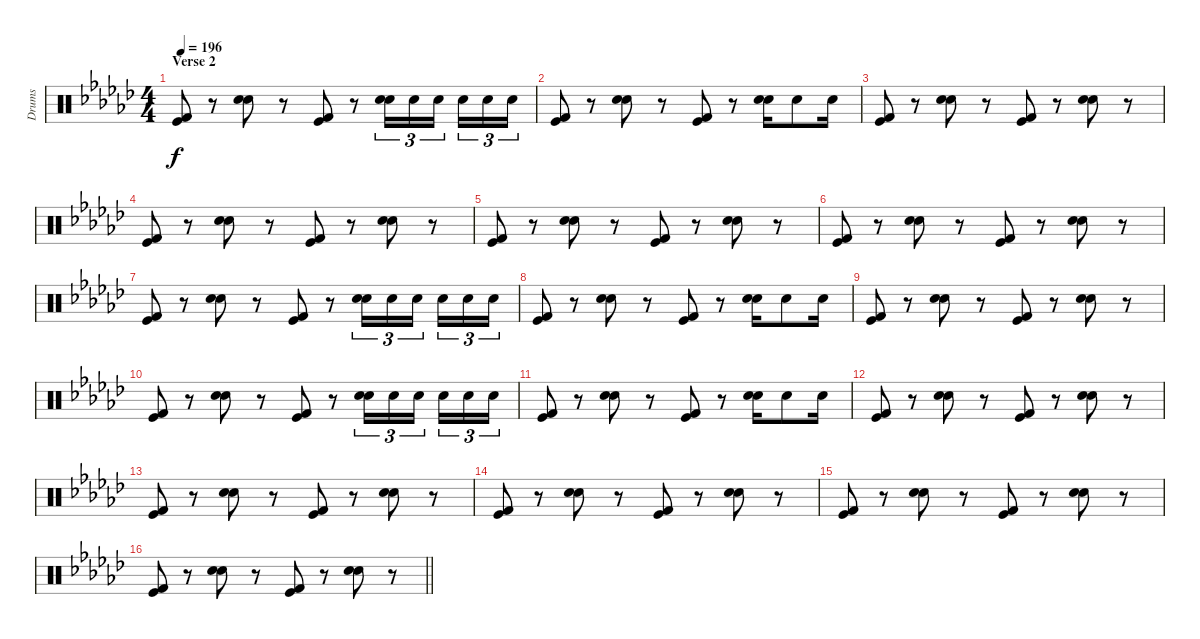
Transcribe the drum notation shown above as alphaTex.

\track ("Drums" "Drums") {instrument percussion}
\staff {score}
\articulation defaults
\ts (4 4)
\section ("" "Verse 2")
\tempo 196
\clef neutral
\ks gb
("Kick (hit) 2" "Kick (hit)").8{dy f} r.8 ("Snare (hit) 2" "Electric Snare (hit)").8 r.8 ("Kick (hit) 2" "Kick (hit)").8 r.8 ("Hand Clap (hit)" "Electric Snare (hit)").16{tu (3 2)} "Hand Clap (hit)".16{tu (3 2)} "Hand Clap (hit)".16{tu (3 2) beam splitsecondary} "Hand Clap (hit)".16{tu (3 2)} "Hand Clap (hit)".16{tu (3 2)} "Hand Clap (hit)".16{tu (3 2)} |
("Kick (hit) 2" "Kick (hit)").8 r.8 ("Snare (hit) 2" "Electric Snare (hit)").8 r.8 ("Kick (hit) 2" "Kick (hit)").8 r.8 ("Snare (hit) 2" "Electric Snare (hit)").16 "Hand Clap (hit)".8 "Hand Clap (hit)".16 |
("Kick (hit) 2" "Kick (hit)").8 r.8 ("Snare (hit) 2" "Electric Snare (hit)").8 r.8 ("Kick (hit) 2" "Kick (hit)").8 r.8 ("Snare (hit) 2" "Electric Snare (hit)").8 r.8 |
("Kick (hit) 2" "Kick (hit)").8 r.8 ("Snare (hit) 2" "Electric Snare (hit)").8 r.8 ("Kick (hit) 2" "Kick (hit)").8 r.8 ("Snare (hit) 2" "Electric Snare (hit)").8 r.8 |
("Kick (hit) 2" "Kick (hit)").8 r.8 ("Snare (hit) 2" "Electric Snare (hit)").8 r.8 ("Kick (hit) 2" "Kick (hit)").8 r.8 ("Snare (hit) 2" "Electric Snare (hit)").8 r.8 |
("Kick (hit) 2" "Kick (hit)").8 r.8 ("Snare (hit) 2" "Electric Snare (hit)").8 r.8 ("Kick (hit) 2" "Kick (hit)").8 r.8 ("Snare (hit) 2" "Electric Snare (hit)").8 r.8 |
("Kick (hit) 2" "Kick (hit)").8 r.8 ("Snare (hit) 2" "Electric Snare (hit)").8 r.8 ("Kick (hit) 2" "Kick (hit)").8 r.8 ("Hand Clap (hit)" "Electric Snare (hit)").16{tu (3 2)} "Hand Clap (hit)".16{tu (3 2)} "Hand Clap (hit)".16{tu (3 2) beam splitsecondary} "Hand Clap (hit)".16{tu (3 2)} "Hand Clap (hit)".16{tu (3 2)} "Hand Clap (hit)".16{tu (3 2)} |
("Kick (hit) 2" "Kick (hit)").8 r.8 ("Snare (hit) 2" "Electric Snare (hit)").8 r.8 ("Kick (hit) 2" "Kick (hit)").8 r.8 ("Snare (hit) 2" "Electric Snare (hit)").16 "Hand Clap (hit)".8 "Hand Clap (hit)".16 |
("Kick (hit) 2" "Kick (hit)").8 r.8 ("Snare (hit) 2" "Electric Snare (hit)").8 r.8 ("Kick (hit) 2" "Kick (hit)").8 r.8 ("Snare (hit) 2" "Electric Snare (hit)").8 r.8 |
("Kick (hit) 2" "Kick (hit)").8 r.8 ("Snare (hit) 2" "Electric Snare (hit)").8 r.8 ("Kick (hit) 2" "Kick (hit)").8 r.8 ("Hand Clap (hit)" "Electric Snare (hit)").16{tu (3 2)} "Hand Clap (hit)".16{tu (3 2)} "Hand Clap (hit)".16{tu (3 2) beam splitsecondary} "Hand Clap (hit)".16{tu (3 2)} "Hand Clap (hit)".16{tu (3 2)} "Hand Clap (hit)".16{tu (3 2)} |
("Kick (hit) 2" "Kick (hit)").8 r.8 ("Snare (hit) 2" "Electric Snare (hit)").8 r.8 ("Kick (hit) 2" "Kick (hit)").8 r.8 ("Snare (hit) 2" "Electric Snare (hit)").16 "Hand Clap (hit)".8 "Hand Clap (hit)".16 |
("Kick (hit) 2" "Kick (hit)").8 r.8 ("Snare (hit) 2" "Electric Snare (hit)").8 r.8 ("Kick (hit) 2" "Kick (hit)").8 r.8 ("Snare (hit) 2" "Electric Snare (hit)").8 r.8 |
("Kick (hit) 2" "Kick (hit)").8 r.8 ("Snare (hit) 2" "Electric Snare (hit)").8 r.8 ("Kick (hit) 2" "Kick (hit)").8 r.8 ("Snare (hit) 2" "Electric Snare (hit)").8 r.8 |
("Kick (hit) 2" "Kick (hit)").8 r.8 ("Snare (hit) 2" "Electric Snare (hit)").8 r.8 ("Kick (hit) 2" "Kick (hit)").8 r.8 ("Snare (hit) 2" "Electric Snare (hit)").8 r.8 |
("Kick (hit) 2" "Kick (hit)").8 r.8 ("Snare (hit) 2" "Electric Snare (hit)").8 r.8 ("Kick (hit) 2" "Kick (hit)").8 r.8 ("Snare (hit) 2" "Electric Snare (hit)").8 r.8 |
\barLineRight lightlight
("Kick (hit) 2" "Kick (hit)").8 r.8 ("Snare (hit) 2" "Electric Snare (hit)").8 r.8 ("Kick (hit) 2" "Kick (hit)").8 r.8 ("Snare (hit) 2" "Electric Snare (hit)").8 r.8
